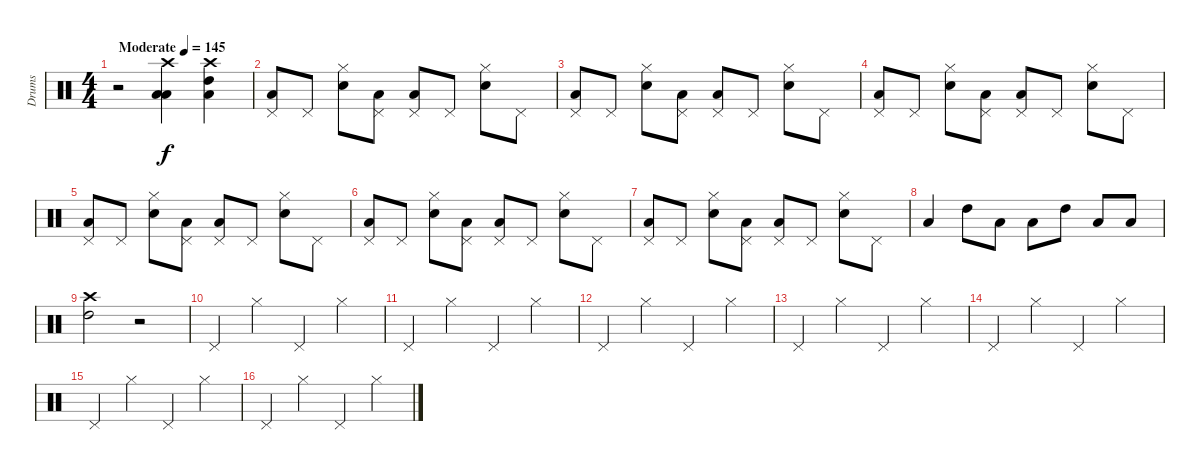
\track ("Drums" "Drums") {instrument percussion}
\staff {score}
\articulation defaults
\ts (4 4)
\tempo (145 "Moderate")
\clef neutral
\ks c
r.2{dy f} ("Low Floor Tom (hit)" "Low Tom (hit)" "Crash high (hit)").4 ("Low Floor Tom (hit)" "High Tom (hit)" "Crash high (hit)").4 |
("Low Floor Tom (hit)" "Pedal Hi-Hat (hit)").8 "Pedal Hi-Hat (hit)".8 ("Snare (hit) 2" "Hi-Hat (closed)").8 ("Low Floor Tom (hit)" "Pedal Hi-Hat (hit)").8 ("Low Floor Tom (hit)" "Pedal Hi-Hat (hit)").8 "Pedal Hi-Hat (hit)".8 ("Snare (hit) 2" "Hi-Hat (closed)").8 "Pedal Hi-Hat (hit)".8 |
("Low Floor Tom (hit)" "Pedal Hi-Hat (hit)").8 "Pedal Hi-Hat (hit)".8 ("Snare (hit) 2" "Hi-Hat (closed)").8 ("Low Floor Tom (hit)" "Pedal Hi-Hat (hit)").8 ("Low Floor Tom (hit)" "Pedal Hi-Hat (hit)").8 "Pedal Hi-Hat (hit)".8 ("Snare (hit) 2" "Hi-Hat (closed)").8 "Pedal Hi-Hat (hit)".8 |
("Low Floor Tom (hit)" "Pedal Hi-Hat (hit)").8 "Pedal Hi-Hat (hit)".8 ("Snare (hit) 2" "Hi-Hat (closed)").8 ("Low Floor Tom (hit)" "Pedal Hi-Hat (hit)").8 ("Low Floor Tom (hit)" "Pedal Hi-Hat (hit)").8 "Pedal Hi-Hat (hit)".8 ("Snare (hit) 2" "Hi-Hat (closed)").8 "Pedal Hi-Hat (hit)".8 |
("Low Floor Tom (hit)" "Pedal Hi-Hat (hit)").8 "Pedal Hi-Hat (hit)".8 ("Snare (hit) 2" "Hi-Hat (closed)").8 ("Low Floor Tom (hit)" "Pedal Hi-Hat (hit)").8 ("Low Floor Tom (hit)" "Pedal Hi-Hat (hit)").8 "Pedal Hi-Hat (hit)".8 ("Snare (hit) 2" "Hi-Hat (closed)").8 "Pedal Hi-Hat (hit)".8 |
("Low Floor Tom (hit)" "Pedal Hi-Hat (hit)").8 "Pedal Hi-Hat (hit)".8 ("Snare (hit) 2" "Hi-Hat (closed)").8 ("Low Floor Tom (hit)" "Pedal Hi-Hat (hit)").8 ("Low Floor Tom (hit)" "Pedal Hi-Hat (hit)").8 "Pedal Hi-Hat (hit)".8 ("Snare (hit) 2" "Hi-Hat (closed)").8 "Pedal Hi-Hat (hit)".8 |
("Low Floor Tom (hit)" "Pedal Hi-Hat (hit)").8 "Pedal Hi-Hat (hit)".8 ("Snare (hit) 2" "Hi-Hat (closed)").8 ("Low Floor Tom (hit)" "Pedal Hi-Hat (hit)").8 ("Low Floor Tom (hit)" "Pedal Hi-Hat (hit)").8 "Pedal Hi-Hat (hit)".8 ("Snare (hit) 2" "Hi-Hat (closed)").8 "Pedal Hi-Hat (hit)".8 |
"Low Floor Tom (hit)".4 "High Tom (hit)".8 "Low Tom (hit)".8 "Low Tom (hit)".8 "High Tom (hit)".8 "Low Tom (hit)".8 "Low Tom (hit)".8 |
("High Tom (hit)" "Crash high (hit)").2 r.2 |
"Pedal Hi-Hat (hit)".4 "Hi-Hat (closed)".4 "Pedal Hi-Hat (hit)".4 "Hi-Hat (closed)".4 |
"Pedal Hi-Hat (hit)".4 "Hi-Hat (closed)".4 "Pedal Hi-Hat (hit)".4 "Hi-Hat (closed)".4 |
"Pedal Hi-Hat (hit)".4 "Hi-Hat (closed)".4 "Pedal Hi-Hat (hit)".4 "Hi-Hat (closed)".4 |
"Pedal Hi-Hat (hit)".4 "Hi-Hat (closed)".4 "Pedal Hi-Hat (hit)".4 "Hi-Hat (closed)".4 |
"Pedal Hi-Hat (hit)".4 "Hi-Hat (closed)".4 "Pedal Hi-Hat (hit)".4 "Hi-Hat (closed)".4 |
"Pedal Hi-Hat (hit)".4 "Hi-Hat (closed)".4 "Pedal Hi-Hat (hit)".4 "Hi-Hat (closed)".4 |
"Pedal Hi-Hat (hit)".4 "Hi-Hat (closed)".4 "Pedal Hi-Hat (hit)".4 "Hi-Hat (closed)".4
